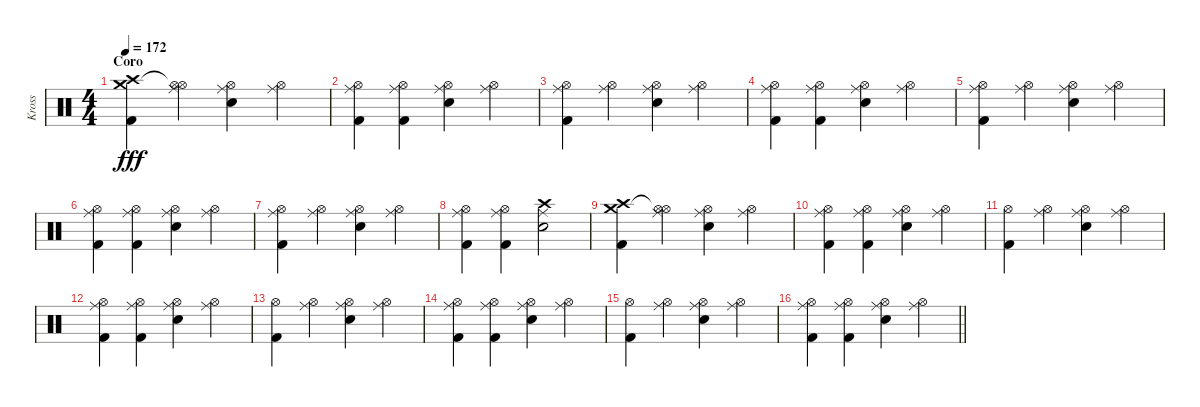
\track ("Kross" "Kross") {instrument percussion}
\staff {score}
\articulation defaults
\ts (4 4)
\section ("" "Coro")
\tempo 172
\clef neutral
\ks c
("Crash medium (hit)" "Crash high (hit)" "Kick (hit) 2").4{dy fff volume 15} ("Hi-Hat (open)"{t} "Hi-Hat (open)" "Ride (middle)").4 ("Hi-Hat (open)" "Ride (middle)" "Snare (hit) 2").4 ("Hi-Hat (open)" "Ride (middle)").4 |
("Hi-Hat (open)" "Ride (middle)" "Kick (hit) 2").4 ("Hi-Hat (open)" "Ride (middle)" "Kick (hit) 2").4 ("Hi-Hat (open)" "Ride (middle)" "Snare (hit) 2").4 ("Hi-Hat (open)" "Ride (middle)").4 |
("Hi-Hat (open)" "Ride (middle)" "Kick (hit) 2").4 ("Hi-Hat (open)" "Ride (middle)").4 ("Hi-Hat (open)" "Ride (middle)" "Snare (hit) 2").4 ("Hi-Hat (open)" "Ride (middle)").4 |
("Hi-Hat (open)" "Ride (middle)" "Kick (hit) 2").4 ("Hi-Hat (open)" "Ride (middle)" "Kick (hit) 2").4 ("Hi-Hat (open)" "Ride (middle)" "Snare (hit) 2").4 ("Hi-Hat (open)" "Ride (middle)").4 |
("Hi-Hat (open)" "Ride (middle)" "Kick (hit) 2").4 ("Hi-Hat (open)" "Ride (middle)").4 ("Hi-Hat (open)" "Ride (middle)" "Snare (hit) 2").4 ("Hi-Hat (open)" "Ride (middle)").4 |
("Hi-Hat (open)" "Ride (middle)" "Kick (hit) 2").4 ("Hi-Hat (open)" "Ride (middle)" "Kick (hit) 2").4 ("Hi-Hat (open)" "Ride (middle)" "Snare (hit) 2").4 ("Hi-Hat (open)" "Ride (middle)").4 |
("Hi-Hat (open)" "Ride (middle)" "Kick (hit) 2").4 ("Hi-Hat (open)" "Ride (middle)").4 ("Hi-Hat (open)" "Ride (middle)" "Snare (hit) 2").4 ("Hi-Hat (open)" "Ride (middle)").4 |
("Hi-Hat (open)" "Ride (middle)" "Kick (hit) 2").4 ("Hi-Hat (open)" "Ride (middle)" "Kick (hit) 2").4 ("Crash high (hit)" "Ride (middle)" "Snare (hit) 2").2 |
("Crash medium (hit)" "Crash high (hit)" "Kick (hit) 2").4 ("Hi-Hat (open)"{t} "Hi-Hat (open)" "Ride (middle)").4 ("Hi-Hat (open)" "Ride (middle)" "Snare (hit) 2").4 ("Hi-Hat (open)" "Ride (middle)").4 |
("Hi-Hat (open)" "Ride (middle)" "Kick (hit) 2").4 ("Hi-Hat (open)" "Ride (middle)" "Kick (hit) 2").4 ("Hi-Hat (open)" "Ride (middle)" "Snare (hit) 2").4 ("Hi-Hat (open)" "Ride (middle)").4 |
("Hi-Hat (open)" "Kick (hit) 2").4 ("Hi-Hat (open)" "Ride (middle)").4 ("Hi-Hat (open)" "Ride (middle)" "Snare (hit) 2").4 ("Hi-Hat (open)" "Ride (middle)").4 |
("Hi-Hat (open)" "Ride (middle)" "Kick (hit) 2").4 ("Hi-Hat (open)" "Ride (middle)" "Kick (hit) 2").4 ("Hi-Hat (open)" "Ride (middle)" "Snare (hit) 2").4 ("Hi-Hat (open)" "Ride (middle)").4 |
("Hi-Hat (open)" "Kick (hit) 2").4 ("Hi-Hat (open)" "Ride (middle)").4 ("Hi-Hat (open)" "Ride (middle)" "Snare (hit) 2").4 ("Hi-Hat (open)" "Ride (middle)").4 |
("Hi-Hat (open)" "Ride (middle)" "Kick (hit) 2").4 ("Hi-Hat (open)" "Ride (middle)" "Kick (hit) 2").4 ("Hi-Hat (open)" "Ride (middle)" "Snare (hit) 2").4 ("Hi-Hat (open)" "Ride (middle)").4 |
("Hi-Hat (open)" "Kick (hit) 2").4 ("Hi-Hat (open)" "Ride (middle)").4 ("Hi-Hat (open)" "Ride (middle)" "Snare (hit) 2").4 ("Hi-Hat (open)" "Ride (middle)").4 |
\barLineRight lightlight
("Hi-Hat (open)" "Ride (middle)" "Kick (hit) 2").4 ("Hi-Hat (open)" "Ride (middle)" "Kick (hit) 2").4 ("Hi-Hat (open)" "Ride (middle)" "Snare (hit) 2").4 ("Hi-Hat (open)" "Ride (middle)").4
